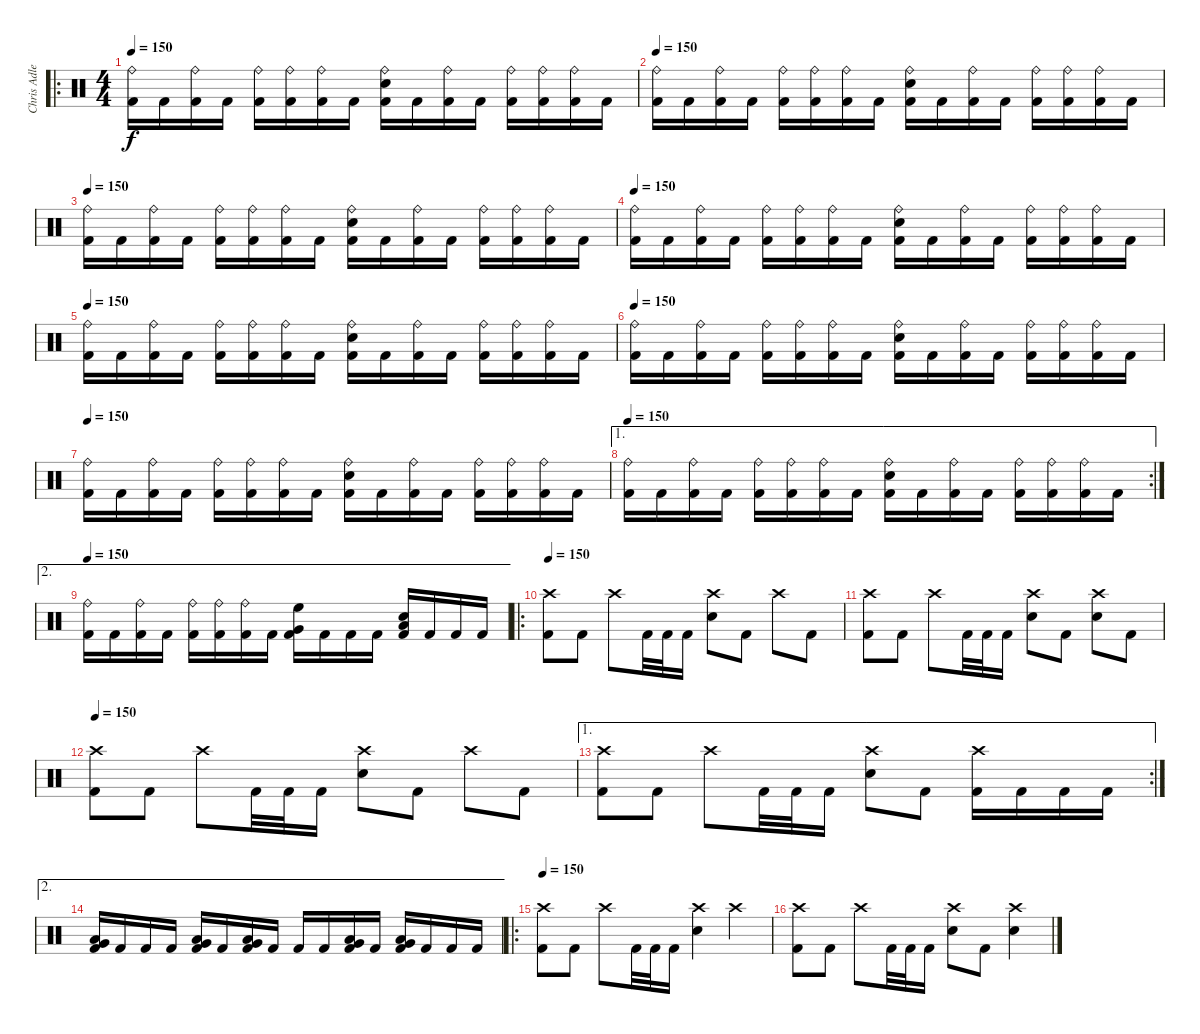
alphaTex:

\track ("Chris Adler" "Chris Adle") {instrument percussion}
\staff {score}
\articulation defaults
\ro
\ts (4 4)
\tempo 150
\clef neutral
\ks c
("Ride (bell)" "Kick (hit) 2").16{dy f} "Kick (hit) 2".16 ("Ride (bell)" "Kick (hit) 2").16 "Kick (hit) 2".16 ("Ride (bell)" "Kick (hit) 2").16 ("Ride (bell)" "Kick (hit) 2").16 ("Ride (bell)" "Kick (hit) 2").16 "Kick (hit) 2".16 ("Ride (bell)" "Snare (hit) 2" "Kick (hit) 2").16 "Kick (hit) 2".16 ("Ride (bell)" "Kick (hit) 2").16 "Kick (hit) 2".16 ("Ride (bell)" "Kick (hit) 2").16 ("Ride (bell)" "Kick (hit) 2").16 ("Ride (bell)" "Kick (hit) 2").16 "Kick (hit) 2".16 |
\tempo 150
("Ride (bell)" "Kick (hit) 2").16 "Kick (hit) 2".16 ("Ride (bell)" "Kick (hit) 2").16 "Kick (hit) 2".16 ("Ride (bell)" "Kick (hit) 2").16 ("Ride (bell)" "Kick (hit) 2").16 ("Ride (bell)" "Kick (hit) 2").16 "Kick (hit) 2".16 ("Ride (bell)" "Snare (hit) 2" "Kick (hit) 2").16 "Kick (hit) 2".16 ("Ride (bell)" "Kick (hit) 2").16 "Kick (hit) 2".16 ("Ride (bell)" "Kick (hit) 2").16 ("Ride (bell)" "Kick (hit) 2").16 ("Ride (bell)" "Kick (hit) 2").16 "Kick (hit) 2".16 |
\tempo 150
("Ride (bell)" "Kick (hit) 2").16 "Kick (hit) 2".16 ("Ride (bell)" "Kick (hit) 2").16 "Kick (hit) 2".16 ("Ride (bell)" "Kick (hit) 2").16 ("Ride (bell)" "Kick (hit) 2").16 ("Ride (bell)" "Kick (hit) 2").16 "Kick (hit) 2".16 ("Ride (bell)" "Snare (hit) 2" "Kick (hit) 2").16 "Kick (hit) 2".16 ("Ride (bell)" "Kick (hit) 2").16 "Kick (hit) 2".16 ("Ride (bell)" "Kick (hit) 2").16 ("Ride (bell)" "Kick (hit) 2").16 ("Ride (bell)" "Kick (hit) 2").16 "Kick (hit) 2".16 |
\tempo 150
("Ride (bell)" "Kick (hit) 2").16 "Kick (hit) 2".16 ("Ride (bell)" "Kick (hit) 2").16 "Kick (hit) 2".16 ("Ride (bell)" "Kick (hit) 2").16 ("Ride (bell)" "Kick (hit) 2").16 ("Ride (bell)" "Kick (hit) 2").16 "Kick (hit) 2".16 ("Ride (bell)" "Snare (hit) 2" "Kick (hit) 2").16 "Kick (hit) 2".16 ("Ride (bell)" "Kick (hit) 2").16 "Kick (hit) 2".16 ("Ride (bell)" "Kick (hit) 2").16 ("Ride (bell)" "Kick (hit) 2").16 ("Ride (bell)" "Kick (hit) 2").16 "Kick (hit) 2".16 |
\tempo 150
("Ride (bell)" "Kick (hit) 2").16 "Kick (hit) 2".16 ("Ride (bell)" "Kick (hit) 2").16 "Kick (hit) 2".16 ("Ride (bell)" "Kick (hit) 2").16 ("Ride (bell)" "Kick (hit) 2").16 ("Ride (bell)" "Kick (hit) 2").16 "Kick (hit) 2".16 ("Ride (bell)" "Snare (hit) 2" "Kick (hit) 2").16 "Kick (hit) 2".16 ("Ride (bell)" "Kick (hit) 2").16 "Kick (hit) 2".16 ("Ride (bell)" "Kick (hit) 2").16 ("Ride (bell)" "Kick (hit) 2").16 ("Ride (bell)" "Kick (hit) 2").16 "Kick (hit) 2".16 |
\tempo 150
("Ride (bell)" "Kick (hit) 2").16 "Kick (hit) 2".16 ("Ride (bell)" "Kick (hit) 2").16 "Kick (hit) 2".16 ("Ride (bell)" "Kick (hit) 2").16 ("Ride (bell)" "Kick (hit) 2").16 ("Ride (bell)" "Kick (hit) 2").16 "Kick (hit) 2".16 ("Ride (bell)" "Snare (hit) 2" "Kick (hit) 2").16 "Kick (hit) 2".16 ("Ride (bell)" "Kick (hit) 2").16 "Kick (hit) 2".16 ("Ride (bell)" "Kick (hit) 2").16 ("Ride (bell)" "Kick (hit) 2").16 ("Ride (bell)" "Kick (hit) 2").16 "Kick (hit) 2".16 |
\tempo 150
("Ride (bell)" "Kick (hit) 2").16 "Kick (hit) 2".16 ("Ride (bell)" "Kick (hit) 2").16 "Kick (hit) 2".16 ("Ride (bell)" "Kick (hit) 2").16 ("Ride (bell)" "Kick (hit) 2").16 ("Ride (bell)" "Kick (hit) 2").16 "Kick (hit) 2".16 ("Ride (bell)" "Snare (hit) 2" "Kick (hit) 2").16 "Kick (hit) 2".16 ("Ride (bell)" "Kick (hit) 2").16 "Kick (hit) 2".16 ("Ride (bell)" "Kick (hit) 2").16 ("Ride (bell)" "Kick (hit) 2").16 ("Ride (bell)" "Kick (hit) 2").16 "Kick (hit) 2".16 |
\ae 1
\rc 2
\tempo 150
("Ride (bell)" "Kick (hit) 2").16 "Kick (hit) 2".16 ("Ride (bell)" "Kick (hit) 2").16 "Kick (hit) 2".16 ("Ride (bell)" "Kick (hit) 2").16 ("Ride (bell)" "Kick (hit) 2").16 ("Ride (bell)" "Kick (hit) 2").16 "Kick (hit) 2".16 ("Ride (bell)" "Snare (hit) 2" "Kick (hit) 2").16 "Kick (hit) 2".16 ("Ride (bell)" "Kick (hit) 2").16 "Kick (hit) 2".16 ("Ride (bell)" "Kick (hit) 2").16 ("Ride (bell)" "Kick (hit) 2").16 ("Ride (bell)" "Kick (hit) 2").16 "Kick (hit) 2".16 |
\ae 2
\tempo 150
("Ride (bell)" "Kick (hit) 2").16 "Kick (hit) 2".16 ("Ride (bell)" "Kick (hit) 2").16 "Kick (hit) 2".16 ("Ride (bell)" "Kick (hit) 2").16 ("Ride (bell)" "Kick (hit) 2").16 ("Ride (bell)" "Kick (hit) 2").16 "Kick (hit) 2".16 ("Very Low Tom (hit)" "High Floor Tom (hit)" "Kick (hit) 2").16 "Kick (hit) 2".16 "Kick (hit) 2".16 "Kick (hit) 2".16 ("Low Tom (hit)" "Snare (hit) 2" "Kick (hit) 2").16 "Kick (hit) 2".16 "Kick (hit) 2".16 "Kick (hit) 2".16 |
\ro
\tempo 150
("Crash high (hit)" "Kick (hit) 2").8 "Kick (hit) 2".8 "Crash high (hit)".8 "Kick (hit) 2".32 "Kick (hit) 2".32 "Kick (hit) 2".16 ("Crash high (hit)" "Snare (hit) 2").8 "Kick (hit) 2".8 "Crash high (hit)".8 "Kick (hit) 2".8 |
("Crash high (hit)" "Kick (hit) 2").8 "Kick (hit) 2".8 "Crash high (hit)".8 "Kick (hit) 2".32 "Kick (hit) 2".32 "Kick (hit) 2".16 ("Crash high (hit)" "Snare (hit) 2").8 "Kick (hit) 2".8 ("Crash high (hit)" "Snare (hit) 2").8 "Kick (hit) 2".8 |
\tempo 150
("Crash high (hit)" "Kick (hit) 2").8 "Kick (hit) 2".8 "Crash high (hit)".8 "Kick (hit) 2".32 "Kick (hit) 2".32 "Kick (hit) 2".16 ("Crash high (hit)" "Snare (hit) 2").8 "Kick (hit) 2".8 "Crash high (hit)".8 "Kick (hit) 2".8 |
\ae 1
\rc 2
("Crash high (hit)" "Kick (hit) 2").8 "Kick (hit) 2".8 "Crash high (hit)".8 "Kick (hit) 2".32 "Kick (hit) 2".32 "Kick (hit) 2".16 ("Crash high (hit)" "Snare (hit) 2").8 "Kick (hit) 2".8 ("Crash high (hit)" "Kick (hit) 2").16 "Kick (hit) 2".16 "Kick (hit) 2".16 "Kick (hit) 2".16 |
\ae 2
("Low Tom (hit)" "Very Low Tom (hit)" "Kick (hit) 2").16 "Kick (hit) 2".16 "Kick (hit) 2".16 "Kick (hit) 2".16 ("Low Tom (hit)" "Very Low Tom (hit)" "Kick (hit) 2").16 "Kick (hit) 2".16 ("Low Tom (hit)" "Very Low Tom (hit)" "Kick (hit) 2").16 "Kick (hit) 2".16 "Kick (hit) 2".16 "Kick (hit) 2".16 ("Low Tom (hit)" "Very Low Tom (hit)" "Kick (hit) 2").16 "Kick (hit) 2".16 ("Low Tom (hit)" "Very Low Tom (hit)" "Kick (hit) 2").16 "Kick (hit) 2".16 "Kick (hit) 2".16 "Kick (hit) 2".16 |
\ro
\tempo 150
("Crash high (hit)" "Kick (hit) 2").8 "Kick (hit) 2".8 "Crash high (hit)".8 "Kick (hit) 2".32 "Kick (hit) 2".32 "Kick (hit) 2".16 ("Crash high (hit)" "Snare (hit) 2").4 "Crash high (hit)".4 |
("Crash high (hit)" "Kick (hit) 2").8 "Kick (hit) 2".8 "Crash high (hit)".8 "Kick (hit) 2".32 "Kick (hit) 2".32 "Kick (hit) 2".16 ("Crash high (hit)" "Snare (hit) 2").8 "Kick (hit) 2".8 ("Crash high (hit)" "Snare (hit) 2").4
